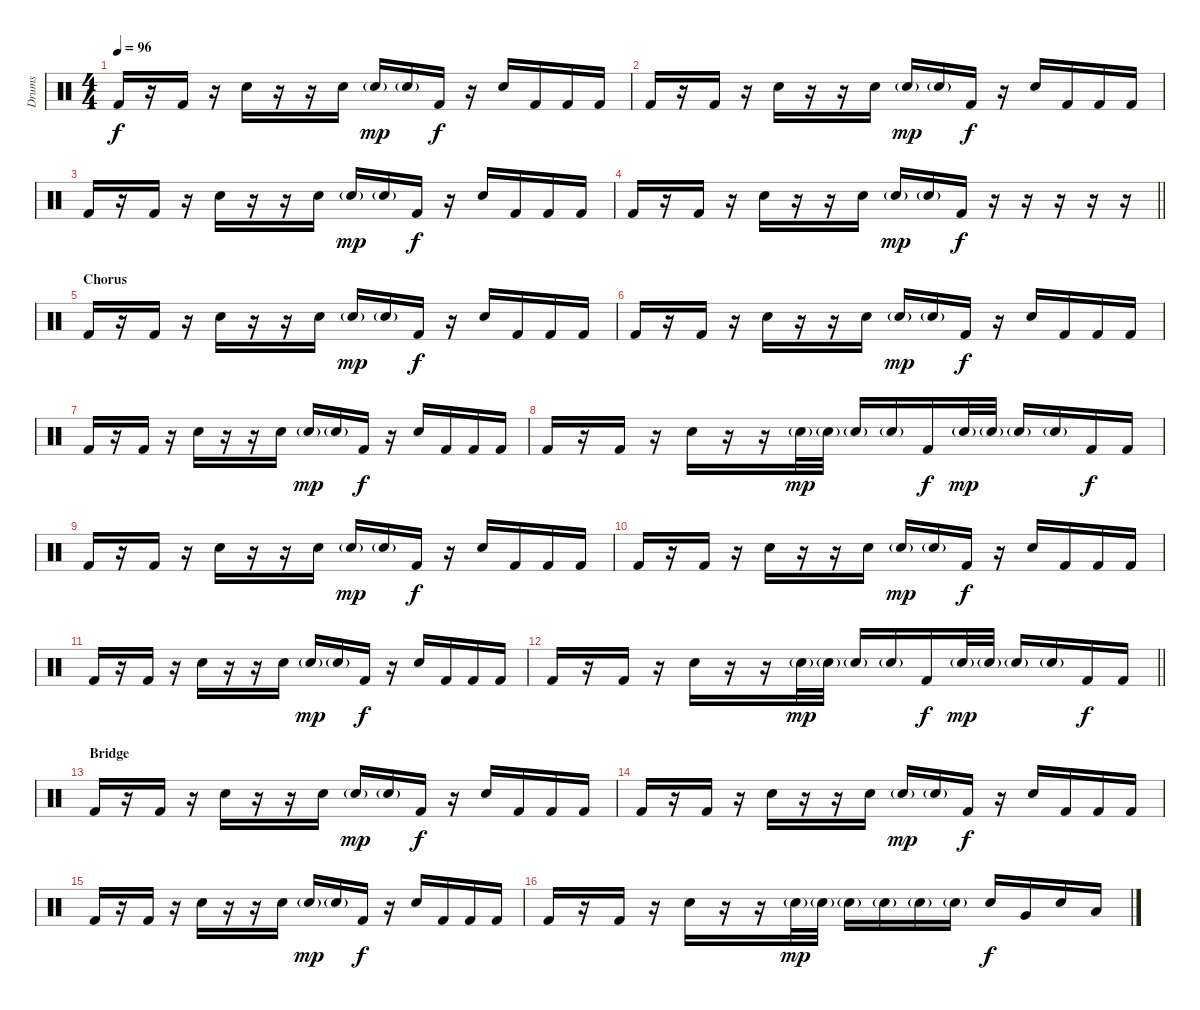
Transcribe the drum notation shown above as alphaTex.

\track ("Drums" "Drums") {instrument percussion}
\staff {score}
\articulation defaults
\ts (4 4)
\tempo 96
\clef neutral
\ks c "Kick (hit) 2".16{dy f}
r.16 "Kick (hit) 2".16 r.16 "Snare (hit) 2".16 r.16 r.16 "Snare (hit) 2".16 "Snare (hit) 2"{g}.16{dy mp} "Snare (hit) 2"{g}.16 "Kick (hit) 2".16{dy f} r.16 "Snare (hit) 2".16 "Kick (hit) 2".16 "Kick (hit) 2".16 "Kick (hit) 2".16 |
"Kick (hit) 2".16 r.16 "Kick (hit) 2".16 r.16 "Snare (hit) 2".16 r.16 r.16 "Snare (hit) 2".16 "Snare (hit) 2"{g}.16{dy mp} "Snare (hit) 2"{g}.16 "Kick (hit) 2".16{dy f} r.16 "Snare (hit) 2".16 "Kick (hit) 2".16 "Kick (hit) 2".16 "Kick (hit) 2".16 |
"Kick (hit) 2".16 r.16 "Kick (hit) 2".16 r.16 "Snare (hit) 2".16 r.16 r.16 "Snare (hit) 2".16 "Snare (hit) 2"{g}.16{dy mp} "Snare (hit) 2"{g}.16 "Kick (hit) 2".16{dy f} r.16 "Snare (hit) 2".16 "Kick (hit) 2".16 "Kick (hit) 2".16 "Kick (hit) 2".16 |
\barLineRight lightlight "Kick (hit) 2".16
r.16 "Kick (hit) 2".16 r.16 "Snare (hit) 2".16 r.16 r.16 "Snare (hit) 2".16 "Snare (hit) 2"{g}.16{dy mp} "Snare (hit) 2"{g}.16 "Kick (hit) 2".16{dy f} r.16 r.16 r.16 r.16 r.16 |
\section ("" "Chorus")
"Kick (hit) 2".16 r.16 "Kick (hit) 2".16 r.16 "Snare (hit) 2".16 r.16 r.16 "Snare (hit) 2".16 "Snare (hit) 2"{g}.16{dy mp} "Snare (hit) 2"{g}.16 "Kick (hit) 2".16{dy f} r.16 "Snare (hit) 2".16 "Kick (hit) 2".16 "Kick (hit) 2".16 "Kick (hit) 2".16 |
"Kick (hit) 2".16 r.16 "Kick (hit) 2".16 r.16 "Snare (hit) 2".16 r.16 r.16 "Snare (hit) 2".16 "Snare (hit) 2"{g}.16{dy mp} "Snare (hit) 2"{g}.16 "Kick (hit) 2".16{dy f} r.16 "Snare (hit) 2".16 "Kick (hit) 2".16 "Kick (hit) 2".16 "Kick (hit) 2".16 |
"Kick (hit) 2".16 r.16 "Kick (hit) 2".16 r.16 "Snare (hit) 2".16 r.16 r.16 "Snare (hit) 2".16 "Snare (hit) 2"{g}.16{dy mp} "Snare (hit) 2"{g}.16 "Kick (hit) 2".16{dy f} r.16 "Snare (hit) 2".16 "Kick (hit) 2".16 "Kick (hit) 2".16 "Kick (hit) 2".16 |
"Kick (hit) 2".16 r.16 "Kick (hit) 2".16 r.16 "Snare (hit) 2".16 r.16 r.16 "Snare (hit) 2"{g}.32{dy mp} "Snare (hit) 2"{g}.32 "Snare (hit) 2"{g}.16 "Snare (hit) 2"{g}.16 "Kick (hit) 2".16{dy f} "Snare (hit) 2"{g}.32{dy mp} "Snare (hit) 2"{g}.32 "Snare (hit) 2"{g}.16 "Snare (hit) 2"{g}.16 "Kick (hit) 2".16{dy f} "Kick (hit) 2".16 |
"Kick (hit) 2".16 r.16 "Kick (hit) 2".16 r.16 "Snare (hit) 2".16 r.16 r.16 "Snare (hit) 2".16 "Snare (hit) 2"{g}.16{dy mp} "Snare (hit) 2"{g}.16 "Kick (hit) 2".16{dy f} r.16 "Snare (hit) 2".16 "Kick (hit) 2".16 "Kick (hit) 2".16 "Kick (hit) 2".16 |
"Kick (hit) 2".16 r.16 "Kick (hit) 2".16 r.16 "Snare (hit) 2".16 r.16 r.16 "Snare (hit) 2".16 "Snare (hit) 2"{g}.16{dy mp} "Snare (hit) 2"{g}.16 "Kick (hit) 2".16{dy f} r.16 "Snare (hit) 2".16 "Kick (hit) 2".16 "Kick (hit) 2".16 "Kick (hit) 2".16 |
"Kick (hit) 2".16 r.16 "Kick (hit) 2".16 r.16 "Snare (hit) 2".16 r.16 r.16 "Snare (hit) 2".16 "Snare (hit) 2"{g}.16{dy mp} "Snare (hit) 2"{g}.16 "Kick (hit) 2".16{dy f} r.16 "Snare (hit) 2".16 "Kick (hit) 2".16 "Kick (hit) 2".16 "Kick (hit) 2".16 |
\barLineRight lightlight "Kick (hit) 2".16
r.16 "Kick (hit) 2".16 r.16 "Snare (hit) 2".16 r.16 r.16 "Snare (hit) 2"{g}.32{dy mp} "Snare (hit) 2"{g}.32 "Snare (hit) 2"{g}.16 "Snare (hit) 2"{g}.16 "Kick (hit) 2".16{dy f} "Snare (hit) 2"{g}.32{dy mp} "Snare (hit) 2"{g}.32 "Snare (hit) 2"{g}.16 "Snare (hit) 2"{g}.16 "Kick (hit) 2".16{dy f} "Kick (hit) 2".16 |
\section ("" "Bridge")
"Kick (hit) 2".16 r.16 "Kick (hit) 2".16 r.16 "Snare (hit) 2".16 r.16 r.16 "Snare (hit) 2".16 "Snare (hit) 2"{g}.16{dy mp} "Snare (hit) 2"{g}.16 "Kick (hit) 2".16{dy f} r.16 "Snare (hit) 2".16 "Kick (hit) 2".16 "Kick (hit) 2".16 "Kick (hit) 2".16 |
"Kick (hit) 2".16 r.16 "Kick (hit) 2".16 r.16 "Snare (hit) 2".16 r.16 r.16 "Snare (hit) 2".16 "Snare (hit) 2"{g}.16{dy mp} "Snare (hit) 2"{g}.16 "Kick (hit) 2".16{dy f} r.16 "Snare (hit) 2".16 "Kick (hit) 2".16 "Kick (hit) 2".16 "Kick (hit) 2".16 |
"Kick (hit) 2".16 r.16 "Kick (hit) 2".16 r.16 "Snare (hit) 2".16 r.16 r.16 "Snare (hit) 2".16 "Snare (hit) 2"{g}.16{dy mp} "Snare (hit) 2"{g}.16 "Kick (hit) 2".16{dy f} r.16 "Snare (hit) 2".16 "Kick (hit) 2".16 "Kick (hit) 2".16 "Kick (hit) 2".16 |
"Kick (hit) 2".16 r.16 "Kick (hit) 2".16 r.16 "Snare (hit) 2".16 r.16 r.16 "Snare (hit) 2"{g}.32{dy mp} "Snare (hit) 2"{g}.32 "Snare (hit) 2"{g}.16 "Snare (hit) 2"{g}.16 "Snare (hit) 2"{g}.16 "Snare (hit) 2"{g}.16 "Snare (hit) 2".16{dy f} "Very Low Tom (hit)".16 "Snare (hit) 2".16 "Low Tom (hit)".16
